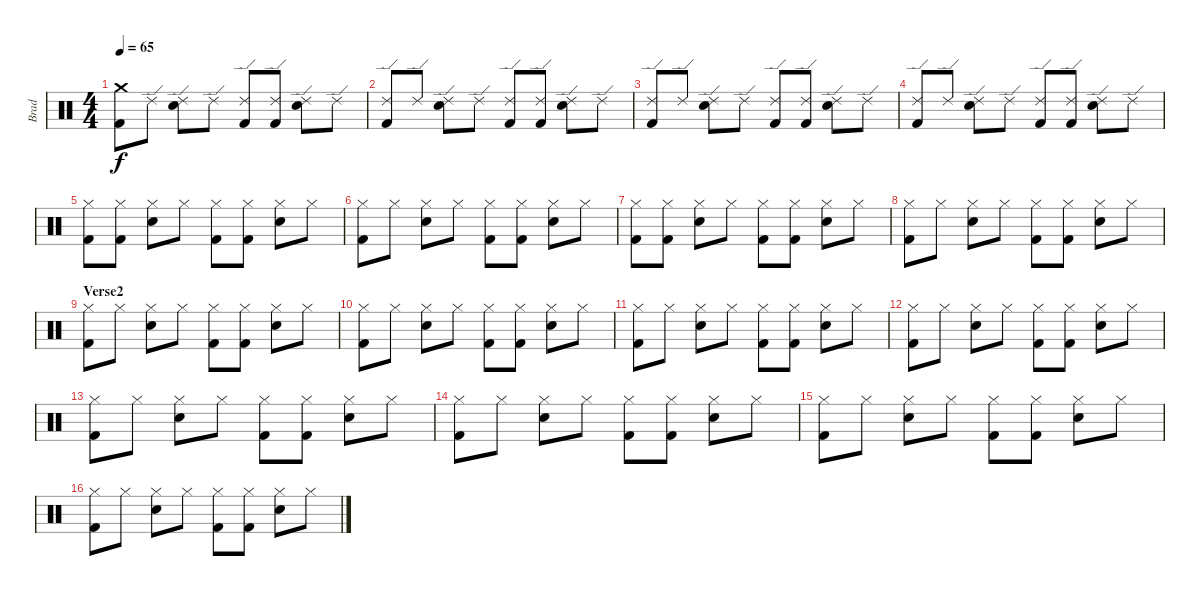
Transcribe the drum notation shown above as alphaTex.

\track ("Brad" "Brad") {instrument percussion}
\staff {score}
\articulation defaults
\ts (4 4)
\tempo 65
\clef neutral
\ks c
("Crash medium (hit)" "Kick (hit) 2").8{dy f} "Ride (edge) 2".8 ("Ride (edge) 2" "Electric Snare (hit)").8 "Ride (edge) 2".8 ("Ride (edge) 2" "Kick (hit) 2").8 ("Ride (edge) 2" "Kick (hit) 2").8 ("Ride (edge) 2" "Electric Snare (hit)").8 "Ride (edge) 2".8 |
("Ride (edge) 2" "Kick (hit) 2").8 "Ride (edge) 2".8 ("Ride (edge) 2" "Electric Snare (hit)").8 "Ride (edge) 2".8 ("Ride (edge) 2" "Kick (hit) 2").8 ("Ride (edge) 2" "Kick (hit) 2").8 ("Ride (edge) 2" "Electric Snare (hit)").8 "Ride (edge) 2".8 |
("Ride (edge) 2" "Kick (hit) 2").8 "Ride (edge) 2".8 ("Ride (edge) 2" "Electric Snare (hit)").8 "Ride (edge) 2".8 ("Ride (edge) 2" "Kick (hit) 2").8 ("Ride (edge) 2" "Kick (hit) 2").8 ("Ride (edge) 2" "Electric Snare (hit)").8 "Ride (edge) 2".8 |
("Ride (edge) 2" "Kick (hit) 2").8 "Ride (edge) 2".8 ("Ride (edge) 2" "Electric Snare (hit)").8 "Ride (edge) 2".8 ("Ride (edge) 2" "Kick (hit) 2").8 ("Ride (edge) 2" "Kick (hit) 2").8 ("Ride (edge) 2" "Electric Snare (hit)").8 "Ride (edge) 2".8 |
("Hi-Hat (closed)" "Kick (hit) 2").8 ("Hi-Hat (closed)" "Kick (hit) 2").8 ("Hi-Hat (closed)" "Electric Snare (hit)").8 "Hi-Hat (closed)".8 ("Hi-Hat (closed)" "Kick (hit) 2").8 ("Hi-Hat (closed)" "Kick (hit) 2").8 ("Hi-Hat (closed)" "Electric Snare (hit)").8 "Hi-Hat (closed)".8 |
("Hi-Hat (closed)" "Kick (hit) 2").8 "Hi-Hat (closed)".8 ("Hi-Hat (closed)" "Electric Snare (hit)").8 "Hi-Hat (closed)".8 ("Hi-Hat (closed)" "Kick (hit) 2").8 ("Hi-Hat (closed)" "Kick (hit) 2").8 ("Hi-Hat (closed)" "Electric Snare (hit)").8 "Hi-Hat (closed)".8 |
("Hi-Hat (closed)" "Kick (hit) 2").8 ("Hi-Hat (closed)" "Kick (hit) 2").8 ("Hi-Hat (closed)" "Electric Snare (hit)").8 "Hi-Hat (closed)".8 ("Hi-Hat (closed)" "Kick (hit) 2").8 ("Hi-Hat (closed)" "Kick (hit) 2").8 ("Hi-Hat (closed)" "Electric Snare (hit)").8 "Hi-Hat (closed)".8 |
("Hi-Hat (closed)" "Kick (hit) 2").8 "Hi-Hat (closed)".8 ("Hi-Hat (closed)" "Electric Snare (hit)").8 "Hi-Hat (closed)".8 ("Hi-Hat (closed)" "Kick (hit) 2").8 ("Hi-Hat (closed)" "Kick (hit) 2").8 ("Hi-Hat (closed)" "Electric Snare (hit)").8 "Hi-Hat (closed)".8 |
\section ("" "Verse2")
("Hi-Hat (closed)" "Kick (hit) 2").8 "Hi-Hat (closed)".8 ("Hi-Hat (closed)" "Electric Snare (hit)").8 "Hi-Hat (closed)".8 ("Hi-Hat (closed)" "Kick (hit) 2").8 ("Hi-Hat (closed)" "Kick (hit) 2").8 ("Hi-Hat (closed)" "Electric Snare (hit)").8 "Hi-Hat (closed)".8 |
("Hi-Hat (closed)" "Kick (hit) 2").8 "Hi-Hat (closed)".8 ("Hi-Hat (closed)" "Electric Snare (hit)").8 "Hi-Hat (closed)".8 ("Hi-Hat (closed)" "Kick (hit) 2").8 ("Hi-Hat (closed)" "Kick (hit) 2").8 ("Hi-Hat (closed)" "Electric Snare (hit)").8 "Hi-Hat (closed)".8 |
("Hi-Hat (closed)" "Kick (hit) 2").8 "Hi-Hat (closed)".8 ("Hi-Hat (closed)" "Electric Snare (hit)").8 "Hi-Hat (closed)".8 ("Hi-Hat (closed)" "Kick (hit) 2").8 ("Hi-Hat (closed)" "Kick (hit) 2").8 ("Hi-Hat (closed)" "Electric Snare (hit)").8 "Hi-Hat (closed)".8 |
("Hi-Hat (closed)" "Kick (hit) 2").8 "Hi-Hat (closed)".8 ("Hi-Hat (closed)" "Electric Snare (hit)").8 "Hi-Hat (closed)".8 ("Hi-Hat (closed)" "Kick (hit) 2").8 ("Hi-Hat (closed)" "Kick (hit) 2").8 ("Hi-Hat (closed)" "Electric Snare (hit)").8 "Hi-Hat (closed)".8 |
("Hi-Hat (closed)" "Kick (hit) 2").8 "Hi-Hat (closed)".8 ("Hi-Hat (closed)" "Electric Snare (hit)").8 "Hi-Hat (closed)".8 ("Hi-Hat (closed)" "Kick (hit) 2").8 ("Hi-Hat (closed)" "Kick (hit) 2").8 ("Hi-Hat (closed)" "Electric Snare (hit)").8 "Hi-Hat (closed)".8 |
("Hi-Hat (closed)" "Kick (hit) 2").8 "Hi-Hat (closed)".8 ("Hi-Hat (closed)" "Electric Snare (hit)").8 "Hi-Hat (closed)".8 ("Hi-Hat (closed)" "Kick (hit) 2").8 ("Hi-Hat (closed)" "Kick (hit) 2").8 ("Hi-Hat (closed)" "Electric Snare (hit)").8 "Hi-Hat (closed)".8 |
("Hi-Hat (closed)" "Kick (hit) 2").8 "Hi-Hat (closed)".8 ("Hi-Hat (closed)" "Electric Snare (hit)").8 "Hi-Hat (closed)".8 ("Hi-Hat (closed)" "Kick (hit) 2").8 ("Hi-Hat (closed)" "Kick (hit) 2").8 ("Hi-Hat (closed)" "Electric Snare (hit)").8 "Hi-Hat (closed)".8 |
("Hi-Hat (closed)" "Kick (hit) 2").8 "Hi-Hat (closed)".8 ("Hi-Hat (closed)" "Electric Snare (hit)").8 "Hi-Hat (closed)".8 ("Hi-Hat (closed)" "Kick (hit) 2").8 ("Hi-Hat (closed)" "Kick (hit) 2").8 ("Hi-Hat (closed)" "Electric Snare (hit)").8 "Hi-Hat (closed)".8
